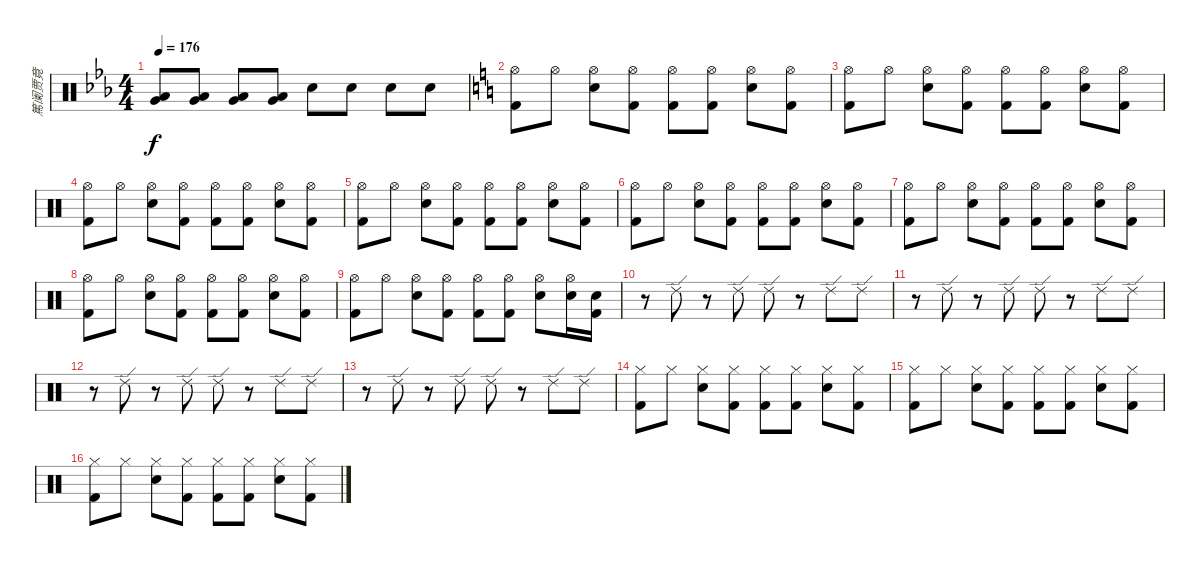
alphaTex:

\track ("篤阑贾竟" "篤阑贾竟") {instrument percussion}
\staff {score}
\articulation defaults
\ts (4 4)
\tempo 176
\clef neutral
\ks eb
("Very Low Tom (hit)" "Low Floor Tom (hit)").8{dy f volume 11} ("Very Low Tom (hit)" "Low Floor Tom (hit)").8 ("Very Low Tom (hit)" "Low Floor Tom (hit)").8 ("Very Low Tom (hit)" "Low Floor Tom (hit)").8 "Snare (hit) 2".8{volume 13} "Snare (hit) 2".8 "Snare (hit) 2".8 "Snare (hit) 2".8 |
\ks c
("Hi-Hat (open)" "Kick (hit) 2").8 "Hi-Hat (open)".8 ("Hi-Hat (open)" "Snare (hit) 2").8 ("Hi-Hat (open)" "Kick (hit) 2").8 ("Hi-Hat (open)" "Kick (hit) 2").8 ("Hi-Hat (open)" "Kick (hit) 2").8 ("Hi-Hat (open)" "Snare (hit) 2").8 ("Hi-Hat (open)" "Kick (hit) 2").8 |
("Hi-Hat (open)" "Kick (hit) 2").8 "Hi-Hat (open)".8 ("Hi-Hat (open)" "Snare (hit) 2").8 ("Hi-Hat (open)" "Kick (hit) 2").8 ("Hi-Hat (open)" "Kick (hit) 2").8 ("Hi-Hat (open)" "Kick (hit) 2").8 ("Hi-Hat (open)" "Snare (hit) 2").8 ("Hi-Hat (open)" "Kick (hit) 2").8 |
("Hi-Hat (open)" "Kick (hit) 2").8 "Hi-Hat (open)".8 ("Hi-Hat (open)" "Snare (hit) 2").8 ("Hi-Hat (open)" "Kick (hit) 2").8 ("Hi-Hat (open)" "Kick (hit) 2").8 ("Hi-Hat (open)" "Kick (hit) 2").8 ("Hi-Hat (open)" "Snare (hit) 2").8 ("Hi-Hat (open)" "Kick (hit) 2").8 |
("Hi-Hat (open)" "Kick (hit) 2").8 "Hi-Hat (open)".8 ("Hi-Hat (open)" "Snare (hit) 2").8 ("Hi-Hat (open)" "Kick (hit) 2").8 ("Hi-Hat (open)" "Kick (hit) 2").8 ("Hi-Hat (open)" "Kick (hit) 2").8 ("Hi-Hat (open)" "Snare (hit) 2").8 ("Hi-Hat (open)" "Kick (hit) 2").8 |
("Hi-Hat (open)" "Kick (hit) 2").8 "Hi-Hat (open)".8 ("Hi-Hat (open)" "Snare (hit) 2").8 ("Hi-Hat (open)" "Kick (hit) 2").8 ("Hi-Hat (open)" "Kick (hit) 2").8 ("Hi-Hat (open)" "Kick (hit) 2").8 ("Hi-Hat (open)" "Snare (hit) 2").8 ("Hi-Hat (open)" "Kick (hit) 2").8 |
("Hi-Hat (open)" "Kick (hit) 2").8 "Hi-Hat (open)".8 ("Hi-Hat (open)" "Snare (hit) 2").8 ("Hi-Hat (open)" "Kick (hit) 2").8 ("Hi-Hat (open)" "Kick (hit) 2").8 ("Hi-Hat (open)" "Kick (hit) 2").8 ("Hi-Hat (open)" "Snare (hit) 2").8 ("Hi-Hat (open)" "Kick (hit) 2").8 |
("Hi-Hat (open)" "Kick (hit) 2").8 "Hi-Hat (open)".8 ("Hi-Hat (open)" "Snare (hit) 2").8 ("Hi-Hat (open)" "Kick (hit) 2").8 ("Hi-Hat (open)" "Kick (hit) 2").8 ("Hi-Hat (open)" "Kick (hit) 2").8 ("Hi-Hat (open)" "Snare (hit) 2").8 ("Hi-Hat (open)" "Kick (hit) 2").8 |
("Hi-Hat (open)" "Kick (hit) 2").8 "Hi-Hat (open)".8 ("Hi-Hat (open)" "Snare (hit) 2").8 ("Hi-Hat (open)" "Kick (hit) 2").8 ("Hi-Hat (open)" "Kick (hit) 2").8 ("Hi-Hat (open)" "Kick (hit) 2").8 ("Hi-Hat (open)" "Snare (hit) 2").8 ("Hi-Hat (open)" "Snare (hit) 2").16 ("Snare (hit) 2" "Kick (hit) 2").16 |
r.8 "Ride (edge) 2".8 r.8 "Ride (edge) 2".8 "Ride (edge) 2".8 r.8 "Ride (edge) 2".8 "Ride (edge) 2".8 |
r.8 "Ride (edge) 2".8 r.8 "Ride (edge) 2".8 "Ride (edge) 2".8 r.8 "Ride (edge) 2".8 "Ride (edge) 2".8 |
r.8 "Ride (edge) 2".8 r.8 "Ride (edge) 2".8 "Ride (edge) 2".8 r.8 "Ride (edge) 2".8 "Ride (edge) 2".8 |
r.8 "Ride (edge) 2".8 r.8 "Ride (edge) 2".8 "Ride (edge) 2".8 r.8 "Ride (edge) 2".8 "Ride (edge) 2".8 |
("Hi-Hat (closed)" "Kick (hit) 2").8 "Hi-Hat (closed)".8 ("Hi-Hat (closed)" "Snare (hit) 2").8 ("Hi-Hat (closed)" "Kick (hit) 2").8 ("Hi-Hat (closed)" "Kick (hit) 2").8 ("Hi-Hat (closed)" "Kick (hit) 2").8 ("Hi-Hat (closed)" "Snare (hit) 2").8 ("Hi-Hat (closed)" "Kick (hit) 2").8 |
("Hi-Hat (closed)" "Kick (hit) 2").8 "Hi-Hat (closed)".8 ("Hi-Hat (closed)" "Snare (hit) 2").8 ("Hi-Hat (closed)" "Kick (hit) 2").8 ("Hi-Hat (closed)" "Kick (hit) 2").8 ("Hi-Hat (closed)" "Kick (hit) 2").8 ("Hi-Hat (closed)" "Snare (hit) 2").8 ("Hi-Hat (closed)" "Kick (hit) 2").8 |
("Hi-Hat (closed)" "Kick (hit) 2").8 "Hi-Hat (closed)".8 ("Hi-Hat (closed)" "Snare (hit) 2").8 ("Hi-Hat (closed)" "Kick (hit) 2").8 ("Hi-Hat (closed)" "Kick (hit) 2").8 ("Hi-Hat (closed)" "Kick (hit) 2").8 ("Hi-Hat (closed)" "Snare (hit) 2").8 ("Hi-Hat (closed)" "Kick (hit) 2").8
